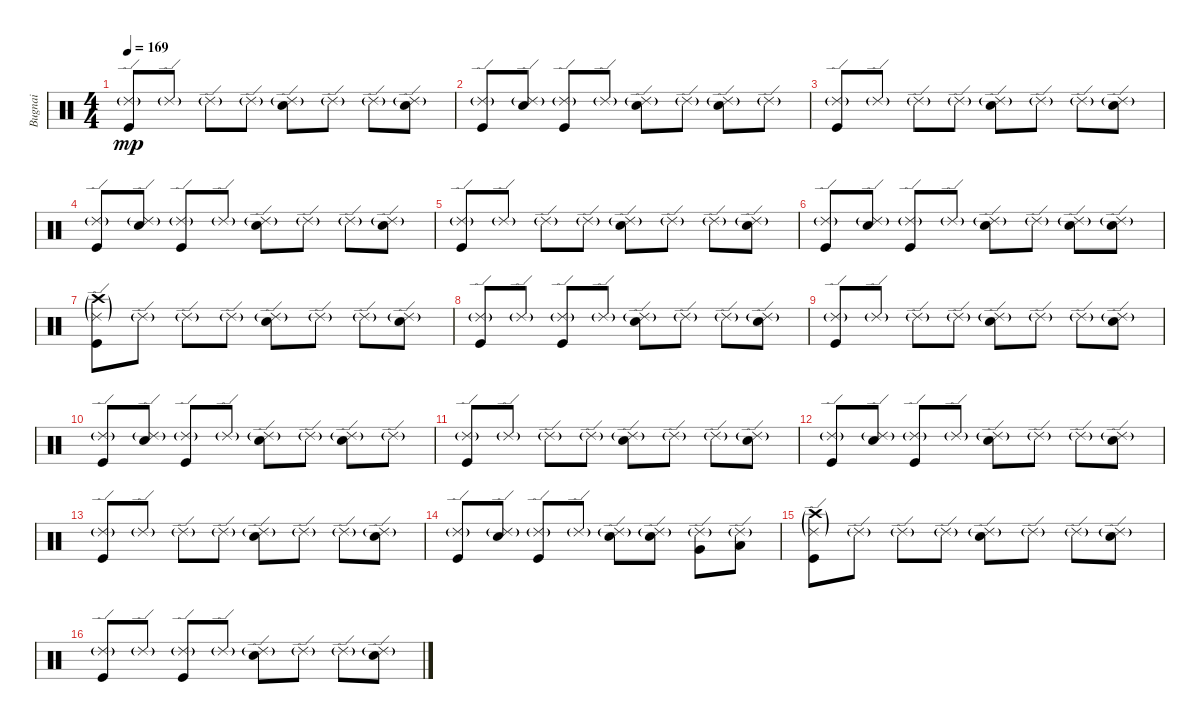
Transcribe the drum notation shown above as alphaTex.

\track ("Bugnai" "Bugnai") {instrument percussion}
\staff {score}
\articulation defaults
\ts (4 4)
\tempo 169
\clef neutral
\ks c
("Ride (edge) 2"{g} "Kick (hit)").8{dy mp} "Ride (edge) 2"{g}.8 "Ride (edge) 2"{g}.8 "Ride (edge) 2"{g}.8 ("Ride (edge) 2"{g} "Snare (hit) 2").8 "Ride (edge) 2"{g}.8 "Ride (edge) 2"{g}.8 ("Ride (edge) 2"{g} "Snare (hit) 2").8 |
("Ride (edge) 2"{g} "Kick (hit)").8 ("Ride (edge) 2"{g} "Snare (hit) 2").8 ("Ride (edge) 2"{g} "Kick (hit)").8 "Ride (edge) 2"{g}.8 ("Ride (edge) 2"{g} "Snare (hit) 2").8 "Ride (edge) 2"{g}.8 ("Ride (edge) 2"{g} "Snare (hit) 2").8 "Ride (edge) 2"{g}.8 |
("Ride (edge) 2"{g} "Kick (hit)").8 "Ride (edge) 2"{g}.8 "Ride (edge) 2"{g}.8 "Ride (edge) 2"{g}.8 ("Ride (edge) 2"{g} "Snare (hit) 2").8 "Ride (edge) 2"{g}.8 "Ride (edge) 2"{g}.8 ("Ride (edge) 2"{g} "Snare (hit) 2").8 |
("Ride (edge) 2"{g} "Kick (hit)").8 ("Ride (edge) 2"{g} "Snare (hit) 2").8 ("Ride (edge) 2"{g} "Kick (hit)").8 "Ride (edge) 2"{g}.8 ("Ride (edge) 2"{g} "Snare (hit) 2").8 "Ride (edge) 2"{g}.8 "Ride (edge) 2"{g}.8 ("Ride (edge) 2"{g} "Snare (hit) 2").8 |
("Ride (edge) 2"{g} "Kick (hit)").8 "Ride (edge) 2"{g}.8 "Ride (edge) 2"{g}.8 "Ride (edge) 2"{g}.8 ("Ride (edge) 2"{g} "Snare (hit) 2").8 "Ride (edge) 2"{g}.8 "Ride (edge) 2"{g}.8 ("Ride (edge) 2"{g} "Snare (hit) 2").8 |
("Ride (edge) 2"{g} "Kick (hit)").8 ("Ride (edge) 2"{g} "Snare (hit) 2").8 ("Ride (edge) 2"{g} "Kick (hit)").8 "Ride (edge) 2"{g}.8 ("Ride (edge) 2"{g} "Snare (hit) 2").8 "Ride (edge) 2"{g}.8 ("Ride (edge) 2"{g} "Snare (hit) 2").8 ("Ride (edge) 2"{g} "Snare (hit) 2").8 |
("Ride (edge) 2"{g} "Crash high (hit)"{g} "Kick (hit)").8 "Ride (edge) 2"{g}.8 "Ride (edge) 2"{g}.8 "Ride (edge) 2"{g}.8 ("Ride (edge) 2"{g} "Snare (hit) 2").8 "Ride (edge) 2"{g}.8 "Ride (edge) 2"{g}.8 ("Ride (edge) 2"{g} "Snare (hit) 2").8 |
("Ride (edge) 2"{g} "Kick (hit)").8 "Ride (edge) 2"{g}.8 ("Ride (edge) 2"{g} "Kick (hit)").8 "Ride (edge) 2"{g}.8 ("Ride (edge) 2"{g} "Snare (hit) 2").8 "Ride (edge) 2"{g}.8 "Ride (edge) 2"{g}.8 ("Ride (edge) 2"{g} "Snare (hit) 2").8 |
("Ride (edge) 2"{g} "Kick (hit)").8 "Ride (edge) 2"{g}.8 "Ride (edge) 2"{g}.8 "Ride (edge) 2"{g}.8 ("Ride (edge) 2"{g} "Snare (hit) 2").8 "Ride (edge) 2"{g}.8 "Ride (edge) 2"{g}.8 ("Ride (edge) 2"{g} "Snare (hit) 2").8 |
("Ride (edge) 2"{g} "Kick (hit)").8 ("Ride (edge) 2"{g} "Snare (hit) 2").8 ("Ride (edge) 2"{g} "Kick (hit)").8 "Ride (edge) 2"{g}.8 ("Ride (edge) 2"{g} "Snare (hit) 2").8 "Ride (edge) 2"{g}.8 ("Ride (edge) 2"{g} "Snare (hit) 2").8 "Ride (edge) 2"{g}.8 |
("Ride (edge) 2"{g} "Kick (hit)").8 "Ride (edge) 2"{g}.8 "Ride (edge) 2"{g}.8 "Ride (edge) 2"{g}.8 ("Ride (edge) 2"{g} "Snare (hit) 2").8 "Ride (edge) 2"{g}.8 "Ride (edge) 2"{g}.8 ("Ride (edge) 2"{g} "Snare (hit) 2").8 |
("Ride (edge) 2"{g} "Kick (hit)").8 ("Ride (edge) 2"{g} "Snare (hit) 2").8 ("Ride (edge) 2"{g} "Kick (hit)").8 "Ride (edge) 2"{g}.8 ("Ride (edge) 2"{g} "Snare (hit) 2").8 "Ride (edge) 2"{g}.8 "Ride (edge) 2"{g}.8 ("Ride (edge) 2"{g} "Snare (hit) 2").8 |
("Ride (edge) 2"{g} "Kick (hit)").8 "Ride (edge) 2"{g}.8 "Ride (edge) 2"{g}.8 "Ride (edge) 2"{g}.8 ("Ride (edge) 2"{g} "Snare (hit) 2").8 "Ride (edge) 2"{g}.8 "Ride (edge) 2"{g}.8 ("Ride (edge) 2"{g} "Snare (hit) 2").8 |
("Ride (edge) 2"{g} "Kick (hit)").8 ("Ride (edge) 2"{g} "Snare (hit) 2").8 ("Ride (edge) 2"{g} "Kick (hit)").8 "Ride (edge) 2"{g}.8 ("Ride (edge) 2"{g} "Snare (hit) 2").8 ("Ride (edge) 2"{g} "Snare (hit) 2").8 ("Ride (edge) 2"{g} "Very Low Tom (hit)").8 ("Ride (edge) 2"{g} "Low Floor Tom (hit)").8 |
("Ride (edge) 2"{g} "Crash high (hit)"{g} "Kick (hit)").8 "Ride (edge) 2"{g}.8 "Ride (edge) 2"{g}.8 "Ride (edge) 2"{g}.8 ("Ride (edge) 2"{g} "Snare (hit) 2").8 "Ride (edge) 2"{g}.8 "Ride (edge) 2"{g}.8 ("Ride (edge) 2"{g} "Snare (hit) 2").8 |
("Ride (edge) 2"{g} "Kick (hit)").8 "Ride (edge) 2"{g}.8 ("Ride (edge) 2"{g} "Kick (hit)").8 "Ride (edge) 2"{g}.8 ("Ride (edge) 2"{g} "Snare (hit) 2").8 "Ride (edge) 2"{g}.8 "Ride (edge) 2"{g}.8 ("Ride (edge) 2"{g} "Snare (hit) 2").8
